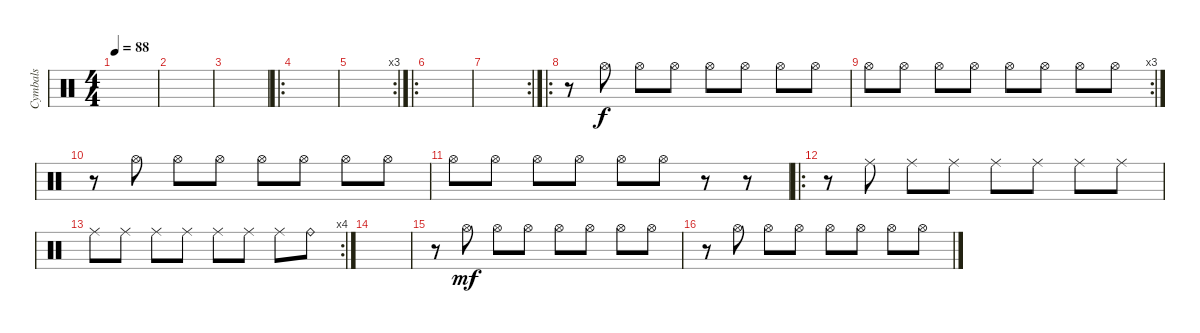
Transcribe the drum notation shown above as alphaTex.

\track ("Cymbals" "Cymbals") {instrument percussion}
\staff {score}
\articulation defaults
\ts (4 4)
\tempo 88
\clef neutral
\ks c
|
|
|
\ro
|
\rc 3
|
\ro
|
\rc 2
|
\ro
r.8 "Hi-Hat (open)".8 "Hi-Hat (open)".8 "Hi-Hat (open)".8 "Hi-Hat (open)".8 "Hi-Hat (open)".8 "Hi-Hat (open)".8 "Hi-Hat (open)".8 |
\rc 3 "Hi-Hat (open)".8 "Hi-Hat (open)".8 "Hi-Hat (open)".8 "Hi-Hat (open)".8 "Hi-Hat (open)".8 "Hi-Hat (open)".8 "Hi-Hat (open)".8 "Hi-Hat (open)".8
|
r.8 "Hi-Hat (open)".8 "Hi-Hat (open)".8 "Hi-Hat (open)".8 "Hi-Hat (open)".8 "Hi-Hat (open)".8 "Hi-Hat (open)".8 "Hi-Hat (open)".8 |
"Hi-Hat (open)".8 "Hi-Hat (open)".8 "Hi-Hat (open)".8 "Hi-Hat (open)".8 "Hi-Hat (open)".8 "Hi-Hat (open)".8 r.8 r.8 |
\ro
r.8 "Ride (middle)".8{dy f} "Ride (middle)".8 "Ride (middle)".8 "Ride (middle)".8 "Ride (middle)".8 "Ride (middle)".8 "Ride (middle)".8 |
\rc 4 "Ride (middle)".8 "Ride (middle)".8 "Ride (middle)".8 "Ride (middle)".8 "Ride (middle)".8 "Ride (middle)".8 "Ride (middle)".8 "Ride (bell)".8
|
|
r.8 "Hi-Hat (open)".8{dy mf} "Hi-Hat (open)".8 "Hi-Hat (open)".8 "Hi-Hat (open)".8 "Hi-Hat (open)".8 "Hi-Hat (open)".8 "Hi-Hat (open)".8 |
r.8 "Hi-Hat (open)".8 "Hi-Hat (open)".8 "Hi-Hat (open)".8 "Hi-Hat (open)".8 "Hi-Hat (open)".8 "Hi-Hat (open)".8 "Hi-Hat (open)".8
